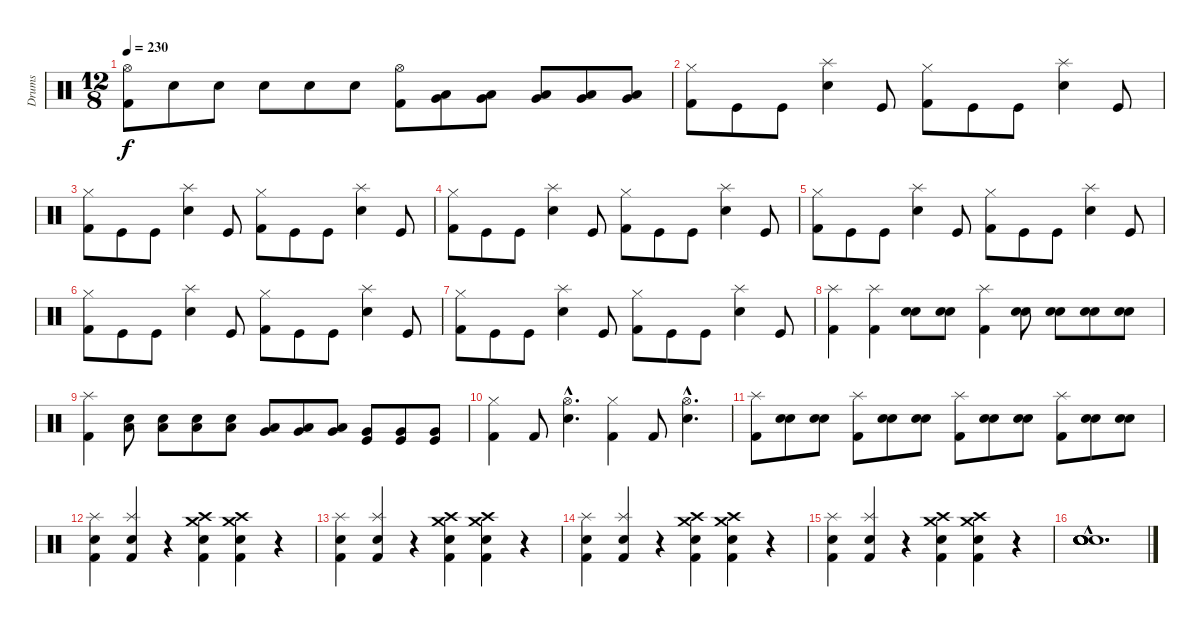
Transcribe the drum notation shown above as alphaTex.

\track ("Drums" "Drums") {instrument percussion}
\staff {score}
\articulation defaults
\ts (12 8)
\tempo 230
\clef neutral
\ks c
("Hi-Hat (open)" "Kick (hit) 2").8{dy f} "Snare (hit) 2".8 "Snare (hit) 2".8 "Snare (hit) 2".8 "Snare (hit) 2".8 "Snare (hit) 2".8 ("Hi-Hat (open)" "Kick (hit) 2").8 ("Low Tom (hit)" "Very Low Tom (hit)").8 ("Low Tom (hit)" "Very Low Tom (hit)").8 ("Low Tom (hit)" "Very Low Tom (hit)").8 ("Low Tom (hit)" "Very Low Tom (hit)").8 ("Low Floor Tom (hit)" "Very Low Tom (hit)").8 |
("Hi-Hat (closed)" "Kick (hit) 2").8 "Kick (hit)".8 "Kick (hit)".8 ("Splash (hit)" "Snare (hit) 2").4 "Kick (hit)".8 ("Hi-Hat (closed)" "Kick (hit) 2").8 "Kick (hit)".8 "Kick (hit)".8 ("Splash (hit)" "Snare (hit) 2").4 "Kick (hit)".8 |
("Hi-Hat (closed)" "Kick (hit) 2").8 "Kick (hit)".8 "Kick (hit)".8 ("Splash (hit)" "Snare (hit) 2").4 "Kick (hit)".8 ("Hi-Hat (closed)" "Kick (hit) 2").8 "Kick (hit)".8 "Kick (hit)".8 ("Splash (hit)" "Snare (hit) 2").4 "Kick (hit)".8 |
("Hi-Hat (closed)" "Kick (hit) 2").8 "Kick (hit)".8 "Kick (hit)".8 ("Splash (hit)" "Snare (hit) 2").4 "Kick (hit)".8 ("Hi-Hat (closed)" "Kick (hit) 2").8 "Kick (hit)".8 "Kick (hit)".8 ("Splash (hit)" "Snare (hit) 2").4 "Kick (hit)".8 |
("Hi-Hat (closed)" "Kick (hit) 2").8 "Kick (hit)".8 "Kick (hit)".8 ("Splash (hit)" "Snare (hit) 2").4 "Kick (hit)".8 ("Hi-Hat (closed)" "Kick (hit) 2").8 "Kick (hit)".8 "Kick (hit)".8 ("Splash (hit)" "Snare (hit) 2").4 "Kick (hit)".8 |
("Hi-Hat (closed)" "Kick (hit) 2").8 "Kick (hit)".8 "Kick (hit)".8 ("Splash (hit)" "Snare (hit) 2").4 "Kick (hit)".8 ("Hi-Hat (closed)" "Kick (hit) 2").8 "Kick (hit)".8 "Kick (hit)".8 ("Splash (hit)" "Snare (hit) 2").4 "Kick (hit)".8 |
("Hi-Hat (closed)" "Kick (hit) 2").8 "Kick (hit)".8 "Kick (hit)".8 ("Splash (hit)" "Snare (hit) 2").4 "Kick (hit)".8 ("Hi-Hat (closed)" "Kick (hit) 2").8 "Kick (hit)".8 "Kick (hit)".8 ("Splash (hit)" "Snare (hit) 2").4 "Kick (hit)".8 |
("Splash (hit)" "Kick (hit) 2").4 ("Splash (hit)" "Kick (hit) 2").4 ("Snare (hit) 2" "Snare (hit) 2").8 ("Electric Snare (hit)" "Snare (hit) 2").8 ("Splash (hit)" "Kick (hit) 2").4 ("Electric Snare (hit)" "Snare (hit) 2").8 ("Electric Snare (hit)" "Snare (hit) 2").8 ("Electric Snare (hit)" "Snare (hit) 2").8 ("Electric Snare (hit)" "Snare (hit) 2").8 |
("Splash (hit)" "Kick (hit) 2").4 ("Low Tom (hit)" "Snare (hit) 2").8 ("Low Tom (hit)" "Snare (hit) 2").8 ("Low Tom (hit)" "Snare (hit) 2").8 ("Low Tom (hit)" "Snare (hit) 2").8 ("Low Floor Tom (hit)" "Very Low Tom (hit)").8 ("Low Floor Tom (hit)" "Very Low Tom (hit)").8 ("Low Floor Tom (hit)" "Very Low Tom (hit)").8 ("Kick (hit)" "Very Low Tom (hit)").8 ("Kick (hit)" "Very Low Tom (hit)").8 ("Kick (hit)" "Very Low Tom (hit)").8 |
("Hi-Hat (closed)" "Kick (hit) 2").4 "Kick (hit) 2".8 ("Hi-Hat (open)"{hac} "Snare (hit) 2"{hac}).4{d} ("Hi-Hat (closed)" "Kick (hit) 2").4 "Kick (hit) 2".8 ("Hi-Hat (open)"{hac} "Snare (hit) 2"{hac}).4{d} |
("Splash (hit)" "Kick (hit) 2").8 ("Electric Snare (hit)" "Snare (hit) 2").8 ("Electric Snare (hit)" "Snare (hit) 2").8 ("Splash (hit)" "Kick (hit) 2").8 ("Electric Snare (hit)" "Snare (hit) 2").8 ("Electric Snare (hit)" "Snare (hit) 2").8 ("Splash (hit)" "Kick (hit) 2").8 ("Electric Snare (hit)" "Snare (hit) 2").8 ("Electric Snare (hit)" "Snare (hit) 2").8 ("Splash (hit)" "Kick (hit) 2").8 ("Snare (hit) 2" "Electric Snare (hit)").8 ("Snare (hit) 2" "Electric Snare (hit)").8 |
("Splash (hit)" "Snare (hit) 2" "Kick (hit) 2").4 ("Splash (hit)" "Electric Snare (hit)" "Kick (hit) 2").4 r.4 ("Crash medium (hit)" "Crash high (hit)" "Snare (hit) 2" "Kick (hit) 2").4 ("Crash medium (hit)" "Crash high (hit)" "Snare (hit) 2" "Kick (hit) 2").4 r.4 |
("Splash (hit)" "Snare (hit) 2" "Kick (hit) 2").4 ("Splash (hit)" "Electric Snare (hit)" "Kick (hit) 2").4 r.4 ("Crash medium (hit)" "Crash high (hit)" "Snare (hit) 2" "Kick (hit) 2").4 ("Crash medium (hit)" "Crash high (hit)" "Snare (hit) 2" "Kick (hit) 2").4 r.4 |
("Splash (hit)" "Snare (hit) 2" "Kick (hit) 2").4 ("Splash (hit)" "Electric Snare (hit)" "Kick (hit) 2").4 r.4 ("Crash medium (hit)" "Crash high (hit)" "Snare (hit) 2" "Kick (hit) 2").4 ("Crash medium (hit)" "Crash high (hit)" "Snare (hit) 2" "Kick (hit) 2").4 r.4 |
("Splash (hit)" "Snare (hit) 2" "Kick (hit) 2").4 ("Splash (hit)" "Electric Snare (hit)" "Kick (hit) 2").4 r.4 ("Crash medium (hit)" "Crash high (hit)" "Snare (hit) 2" "Kick (hit) 2").4 ("Crash medium (hit)" "Crash high (hit)" "Snare (hit) 2" "Kick (hit) 2").4 r.4 |
("Snare (hit)"{hac x} "Snare (hit)"{hac x} "Snare (hit)"{hac x} "Snare (hit)"{hac x} "Snare (hit)"{hac x} "Snare (hit)"{hac x}).1{d}
